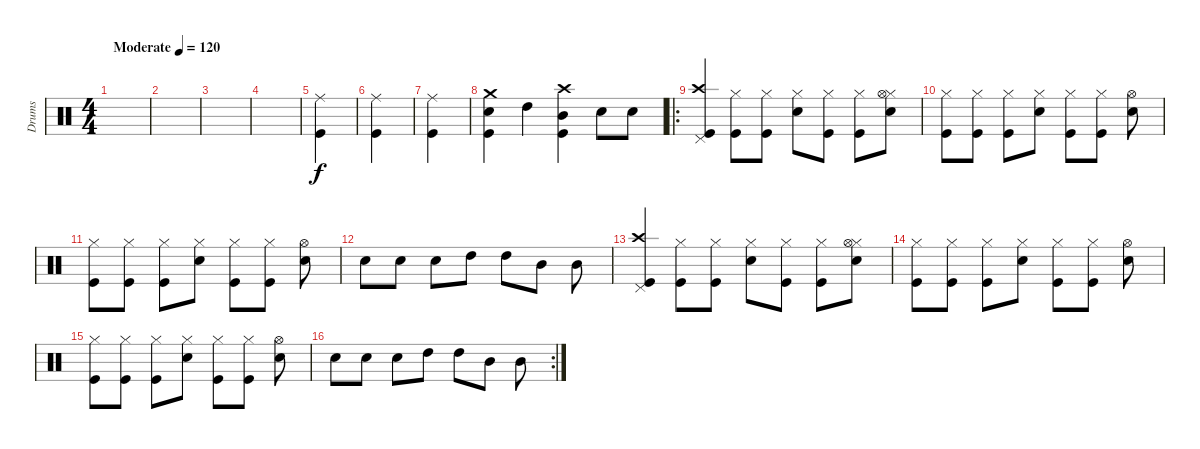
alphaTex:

\track ("Drums" "Drums") {instrument percussion}
\staff {score}
\articulation defaults
\ts (4 4)
\tempo (120 "Moderate")
\clef neutral
\ks c
|
|
|
|
("Kick (hit)" "Ride (middle)").4 |
("Kick (hit)" "Ride (middle)").4 |
("Kick (hit)" "Ride (middle)").4 |
("Snare (hit) 2" "Crash medium (hit)" "Kick (hit)").4 "High Tom (hit)".4 ("Mid Tom (hit)" "Crash high (hit)" "Kick (hit)").4 "Snare (hit) 2".8 "Snare (hit) 2".8 |
\ro
("Crash high (hit)" "Kick (hit)" "Pedal Hi-Hat (hit)").4 ("Kick (hit)" "Hi-Hat (closed)").8 ("Kick (hit)" "Hi-Hat (closed)").8 ("Snare (hit) 2" "Hi-Hat (closed)").8 ("Kick (hit)" "Hi-Hat (closed)").8 ("Kick (hit)" "Hi-Hat (closed)").8 ("Snare (hit) 2" "Hi-Hat (closed)" "Hi-Hat (open)").8 |
("Hi-Hat (closed)" "Kick (hit)").8 ("Kick (hit)" "Hi-Hat (closed)").8 ("Kick (hit)" "Hi-Hat (closed)").8 ("Snare (hit) 2" "Hi-Hat (closed)").8 ("Kick (hit)" "Hi-Hat (closed)").8 ("Kick (hit)" "Hi-Hat (closed)").8 ("Snare (hit) 2" "Hi-Hat (open)").8 |
("Hi-Hat (closed)" "Kick (hit)").8 ("Kick (hit)" "Hi-Hat (closed)").8 ("Kick (hit)" "Hi-Hat (closed)").8 ("Snare (hit) 2" "Hi-Hat (closed)").8 ("Kick (hit)" "Hi-Hat (closed)").8 ("Kick (hit)" "Hi-Hat (closed)").8 ("Snare (hit) 2" "Hi-Hat (open)").8 |
"Snare (hit) 2".8 "Snare (hit) 2".8 "Snare (hit) 2".8 "High Tom (hit)".8 "High Tom (hit)".8 "Mid Tom (hit)".8 "Mid Tom (hit)".8 |
("Crash high (hit)" "Kick (hit)" "Pedal Hi-Hat (hit)").4 ("Kick (hit)" "Hi-Hat (closed)").8 ("Kick (hit)" "Hi-Hat (closed)").8 ("Snare (hit) 2" "Hi-Hat (closed)").8 ("Kick (hit)" "Hi-Hat (closed)").8 ("Kick (hit)" "Hi-Hat (closed)").8 ("Snare (hit) 2" "Hi-Hat (closed)" "Hi-Hat (open)").8 |
("Hi-Hat (closed)" "Kick (hit)").8 ("Kick (hit)" "Hi-Hat (closed)").8 ("Kick (hit)" "Hi-Hat (closed)").8 ("Snare (hit) 2" "Hi-Hat (closed)").8 ("Kick (hit)" "Hi-Hat (closed)").8 ("Kick (hit)" "Hi-Hat (closed)").8 ("Snare (hit) 2" "Hi-Hat (open)").8 |
("Hi-Hat (closed)" "Kick (hit)").8 ("Kick (hit)" "Hi-Hat (closed)").8 ("Kick (hit)" "Hi-Hat (closed)").8 ("Snare (hit) 2" "Hi-Hat (closed)").8 ("Kick (hit)" "Hi-Hat (closed)").8 ("Kick (hit)" "Hi-Hat (closed)").8 ("Snare (hit) 2" "Hi-Hat (open)").8 |
\rc 2 "Snare (hit) 2".8 "Snare (hit) 2".8 "Snare (hit) 2".8 "High Tom (hit)".8 "High Tom (hit)".8 "Mid Tom (hit)".8 "Mid Tom (hit)".8
